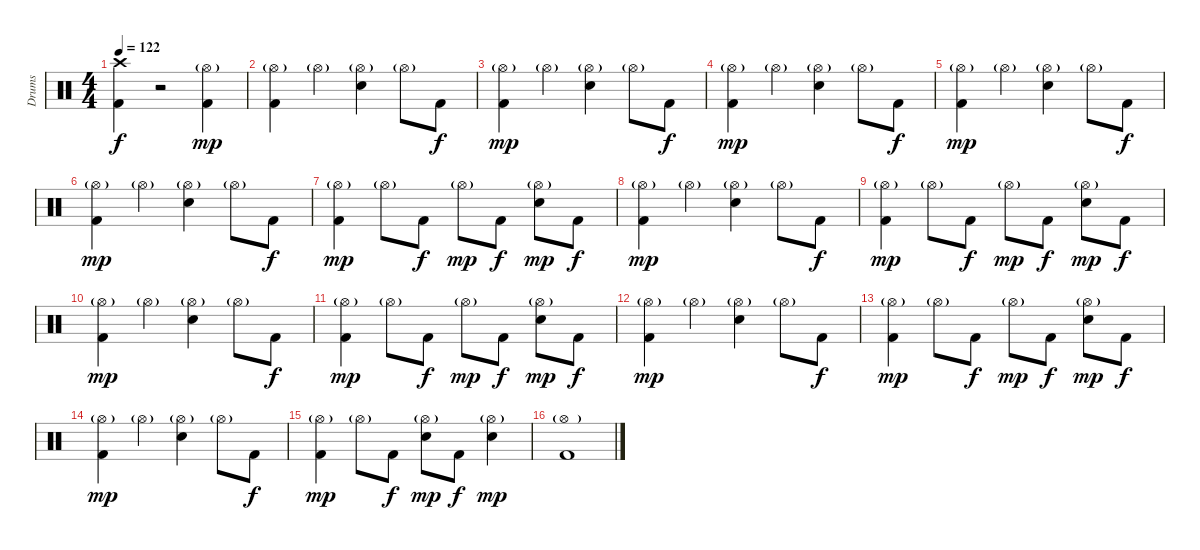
\track ("Drums" "Drums") {instrument percussion}
\staff {score}
\articulation defaults
\ts (4 4)
\tempo 122
\clef neutral
\ks c
("Crash high (hit)" "Kick (hit) 2").4{dy f} r.2 ("Hi-Hat (open)"{g} "Kick (hit) 2").4{dy mp} |
("Hi-Hat (open)"{g} "Kick (hit) 2").4 "Hi-Hat (open)"{g}.4 ("Hi-Hat (open)"{g} "Electric Snare (hit)").4 "Hi-Hat (open)"{g}.8 "Kick (hit) 2".8{dy f} |
("Hi-Hat (open)"{g} "Kick (hit) 2").4{dy mp} "Hi-Hat (open)"{g}.4 ("Hi-Hat (open)"{g} "Electric Snare (hit)").4 "Hi-Hat (open)"{g}.8 "Kick (hit) 2".8{dy f} |
("Hi-Hat (open)"{g} "Kick (hit) 2").4{dy mp} "Hi-Hat (open)"{g}.4 ("Hi-Hat (open)"{g} "Electric Snare (hit)").4 "Hi-Hat (open)"{g}.8 "Kick (hit) 2".8{dy f} |
("Hi-Hat (open)"{g} "Kick (hit) 2").4{dy mp} "Hi-Hat (open)"{g}.4 ("Hi-Hat (open)"{g} "Electric Snare (hit)").4 "Hi-Hat (open)"{g}.8 "Kick (hit) 2".8{dy f} |
("Hi-Hat (open)"{g} "Kick (hit) 2").4{dy mp} "Hi-Hat (open)"{g}.4 ("Hi-Hat (open)"{g} "Electric Snare (hit)").4 "Hi-Hat (open)"{g}.8 "Kick (hit) 2".8{dy f} |
("Hi-Hat (open)"{g} "Kick (hit) 2").4{dy mp} "Hi-Hat (open)"{g}.8 "Kick (hit) 2".8{dy f} "Hi-Hat (open)"{g}.8{dy mp} "Kick (hit) 2".8{dy f} ("Hi-Hat (open)"{g} "Electric Snare (hit)").8{dy mp} "Kick (hit) 2".8{dy f} |
("Hi-Hat (open)"{g} "Kick (hit) 2").4{dy mp} "Hi-Hat (open)"{g}.4 ("Hi-Hat (open)"{g} "Electric Snare (hit)").4 "Hi-Hat (open)"{g}.8 "Kick (hit) 2".8{dy f} |
("Hi-Hat (open)"{g} "Kick (hit) 2").4{dy mp} "Hi-Hat (open)"{g}.8 "Kick (hit) 2".8{dy f} "Hi-Hat (open)"{g}.8{dy mp} "Kick (hit) 2".8{dy f} ("Hi-Hat (open)"{g} "Electric Snare (hit)").8{dy mp} "Kick (hit) 2".8{dy f} |
("Hi-Hat (open)"{g} "Kick (hit) 2").4{dy mp} "Hi-Hat (open)"{g}.4 ("Hi-Hat (open)"{g} "Electric Snare (hit)").4 "Hi-Hat (open)"{g}.8 "Kick (hit) 2".8{dy f} |
("Hi-Hat (open)"{g} "Kick (hit) 2").4{dy mp} "Hi-Hat (open)"{g}.8 "Kick (hit) 2".8{dy f} "Hi-Hat (open)"{g}.8{dy mp} "Kick (hit) 2".8{dy f} ("Hi-Hat (open)"{g} "Electric Snare (hit)").8{dy mp} "Kick (hit) 2".8{dy f} |
("Hi-Hat (open)"{g} "Kick (hit) 2").4{dy mp} "Hi-Hat (open)"{g}.4 ("Hi-Hat (open)"{g} "Electric Snare (hit)").4 "Hi-Hat (open)"{g}.8 "Kick (hit) 2".8{dy f} |
("Hi-Hat (open)"{g} "Kick (hit) 2").4{dy mp} "Hi-Hat (open)"{g}.8 "Kick (hit) 2".8{dy f} "Hi-Hat (open)"{g}.8{dy mp} "Kick (hit) 2".8{dy f} ("Hi-Hat (open)"{g} "Electric Snare (hit)").8{dy mp} "Kick (hit) 2".8{dy f} |
("Hi-Hat (open)"{g} "Kick (hit) 2").4{dy mp} "Hi-Hat (open)"{g}.4 ("Hi-Hat (open)"{g} "Electric Snare (hit)").4 "Hi-Hat (open)"{g}.8 "Kick (hit) 2".8{dy f} |
("Hi-Hat (open)"{g} "Kick (hit) 2").4{dy mp} "Hi-Hat (open)"{g}.8 "Kick (hit) 2".8{dy f} ("Hi-Hat (open)"{g} "Electric Snare (hit)").8{dy mp} "Kick (hit) 2".8{dy f} ("Hi-Hat (open)"{g} "Electric Snare (hit)").4{dy mp} |
("Hi-Hat (open)"{g} "Kick (hit) 2").1
